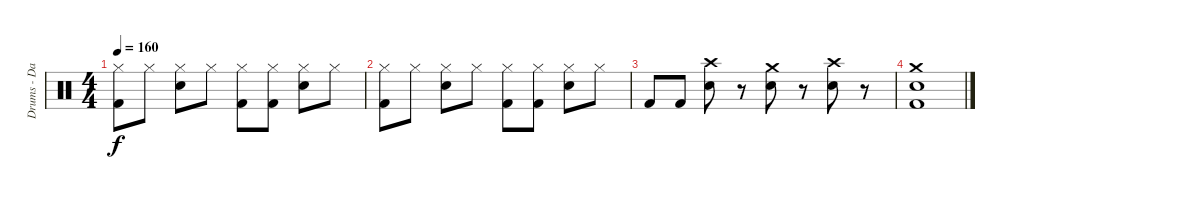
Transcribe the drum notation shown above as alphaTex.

\track ("Drums - Daniel Zimmermann" "Drums - Da") {instrument percussion}
\staff {score}
\articulation defaults
\ts (4 4)
\tempo 160
\clef neutral
\ks c
("Hi-Hat (closed)" "Kick (hit) 2").8{dy f} "Hi-Hat (closed)".8 ("Hi-Hat (closed)" "Snare (hit) 2").8 "Hi-Hat (closed)".8 ("Hi-Hat (closed)" "Kick (hit) 2").8 ("Hi-Hat (closed)" "Kick (hit) 2").8 ("Hi-Hat (closed)" "Snare (hit) 2").8 "Hi-Hat (closed)".8 |
("Hi-Hat (closed)" "Kick (hit) 2").8 "Hi-Hat (closed)".8 ("Hi-Hat (closed)" "Snare (hit) 2").8 "Hi-Hat (closed)".8 ("Hi-Hat (closed)" "Kick (hit) 2").8 ("Hi-Hat (closed)" "Kick (hit) 2").8 ("Hi-Hat (closed)" "Snare (hit) 2").8 "Hi-Hat (closed)".8 |
"Kick (hit) 2".8 "Kick (hit) 2".8 ("Snare (hit) 2" "Crash high (hit)").8 r.8 ("Snare (hit) 2" "Crash medium (hit)").8 r.8 ("Snare (hit) 2" "Crash high (hit)").8 r.8 |
("Kick (hit) 2" "Snare (hit) 2" "Crash medium (hit)").1
